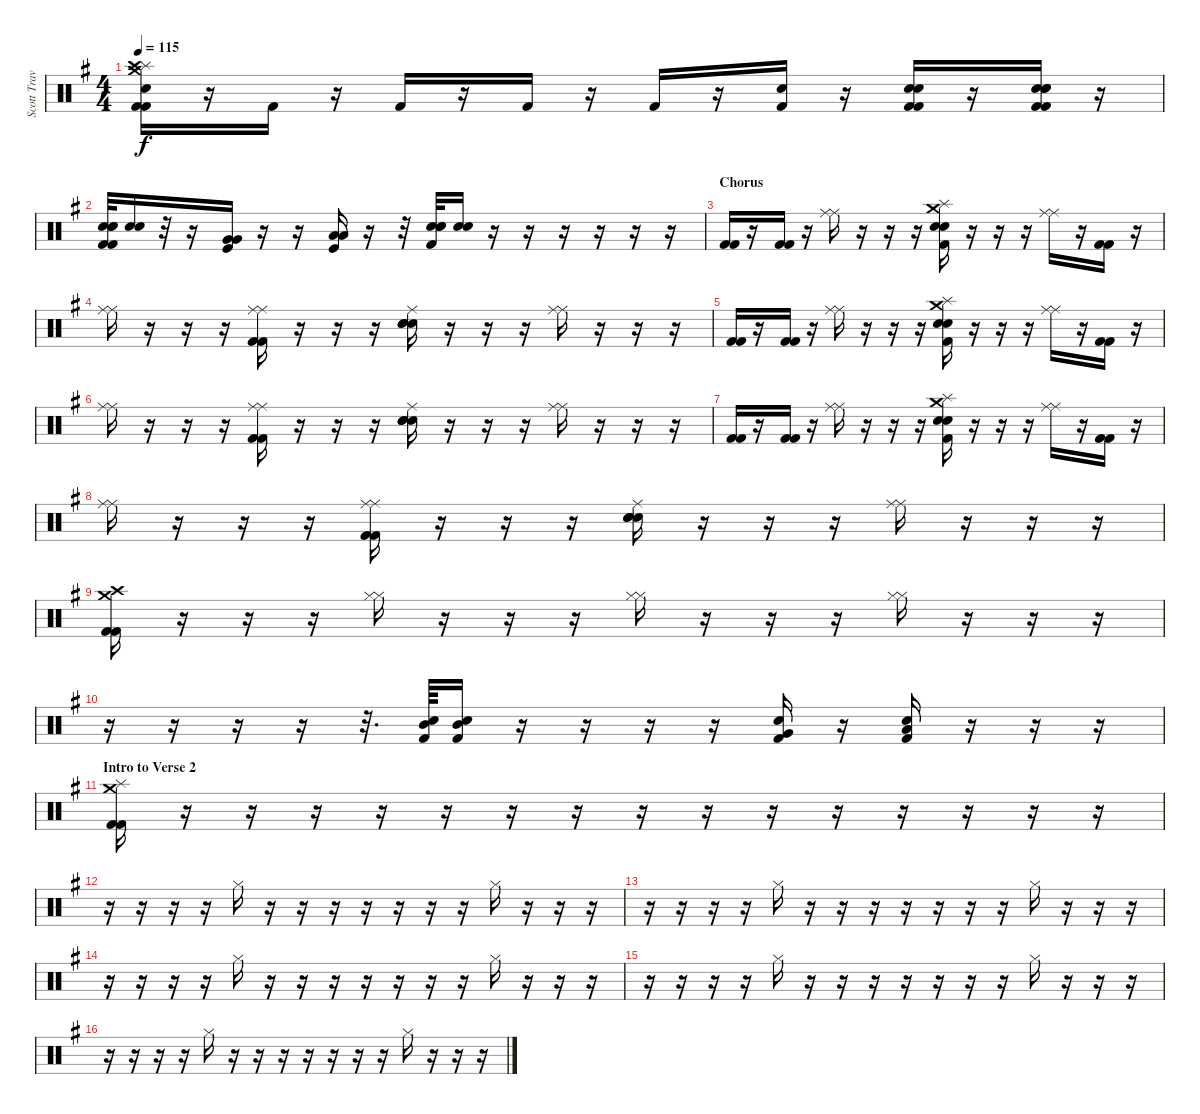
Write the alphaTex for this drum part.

\track ("Scott Travis" "Scott Trav") {instrument percussion}
\staff {score}
\articulation defaults
\ts (4 4)
\tempo 115
\clef neutral
\ks eminor
("Splash (hit)" "Crash high (hit)" "Crash medium (hit)" "Snare (hit) 2" "Kick (hit) 2" "Kick (hit) 2").16{dy f} r.16 "Kick (hit) 2".16 r.16 "Kick (hit) 2".16 r.16 "Kick (hit) 2".16 r.16 "Kick (hit) 2".16 r.16 ("Snare (hit) 2" "Kick (hit) 2").16 r.16 ("Snare (hit) 2" "Snare (hit) 2" "Kick (hit) 2" "Kick (hit) 2").16 r.16 ("Snare (hit) 2" "Snare (hit) 2" "Snare (hit) 2" "Kick (hit) 2" "Kick (hit) 2").16 r.16 |
("Snare (hit) 2" "Snare (hit) 2" "Snare (hit) 2" "Kick (hit) 2" "Kick (hit) 2").32 ("Snare (hit) 2" "Snare (hit) 2").16 r.32 r.16 ("Very Low Tom (hit)" "Very Low Tom (hit)" "Kick (hit)").16 r.16 r.16 ("Low Floor Tom (hit)" "Low Floor Tom (hit)" "Kick (hit)").16 r.16 r.32 ("Snare (hit) 2" "Snare (hit) 2" "Snare (hit) 2" "Kick (hit) 2").32 ("Snare (hit) 2" "Snare (hit) 2").16 r.16 r.16 r.16 r.16 r.16 r.16 |
\section ("" "Chorus")
("Kick (hit) 2" "Kick (hit) 2").16 r.16 ("Kick (hit) 2" "Kick (hit) 2").16 r.16 ("Ride (middle)" "Ride (middle)").16 r.16 r.16 r.16 ("Crash medium (hit)" "Splash (hit)" "Snare (hit) 2" "Snare (hit) 2" "Kick (hit) 2").16 r.16 r.16 r.16 ("Ride (middle)" "Ride (middle)").16 r.16 ("Kick (hit) 2" "Kick (hit) 2").16 r.16 |
("Ride (middle)" "Ride (middle)").16 r.16 r.16 r.16 ("Ride (middle)" "Ride (middle)" "Kick (hit) 2" "Kick (hit) 2").16 r.16 r.16 r.16 ("Ride (middle)" "Snare (hit) 2" "Snare (hit) 2" "Snare (hit) 2").16 r.16 r.16 r.16 ("Ride (middle)" "Ride (middle)").16 r.16 r.16 r.16 |
("Kick (hit) 2" "Kick (hit) 2").16 r.16 ("Kick (hit) 2" "Kick (hit) 2").16 r.16 ("Ride (middle)" "Ride (middle)").16 r.16 r.16 r.16 ("Crash medium (hit)" "Splash (hit)" "Snare (hit) 2" "Snare (hit) 2" "Kick (hit) 2").16 r.16 r.16 r.16 ("Ride (middle)" "Ride (middle)").16 r.16 ("Kick (hit) 2" "Kick (hit) 2").16 r.16 |
("Ride (middle)" "Ride (middle)").16 r.16 r.16 r.16 ("Ride (middle)" "Ride (middle)" "Kick (hit) 2" "Kick (hit) 2").16 r.16 r.16 r.16 ("Ride (middle)" "Snare (hit) 2" "Snare (hit) 2" "Snare (hit) 2").16 r.16 r.16 r.16 ("Ride (middle)" "Ride (middle)").16 r.16 r.16 r.16 |
("Kick (hit) 2" "Kick (hit) 2").16 r.16 ("Kick (hit) 2" "Kick (hit) 2").16 r.16 ("Ride (middle)" "Ride (middle)").16 r.16 r.16 r.16 ("Crash medium (hit)" "Splash (hit)" "Snare (hit) 2" "Snare (hit) 2" "Kick (hit) 2").16 r.16 r.16 r.16 ("Ride (middle)" "Ride (middle)").16 r.16 ("Kick (hit) 2" "Kick (hit) 2").16 r.16 |
("Ride (middle)" "Ride (middle)").16 r.16 r.16 r.16 ("Ride (middle)" "Ride (middle)" "Kick (hit) 2" "Kick (hit) 2").16 r.16 r.16 r.16 ("Ride (middle)" "Snare (hit) 2" "Snare (hit) 2" "Snare (hit) 2").16 r.16 r.16 r.16 ("Ride (middle)" "Ride (middle)").16 r.16 r.16 r.16 |
("Crash medium (hit)" "Crash high (hit)" "Kick (hit) 2" "Kick (hit) 2").16 r.16 r.16 r.16 ("Hi-Hat (closed)" "Hi-Hat (closed)").16 r.16 r.16 r.16 ("Hi-Hat (closed)" "Hi-Hat (closed)").16 r.16 r.16 r.16 ("Hi-Hat (closed)" "Hi-Hat (closed)").16 r.16 r.16 r.16 |
r.16 r.16 r.16 r.16 r.32{d} ("Mid Tom (hit)" "Electric Snare (hit)" "Kick (hit) 2").64 ("Mid Tom (hit)" "Electric Snare (hit)" "Kick (hit) 2").16 r.16 r.16 r.16 r.16 ("Very Low Tom (hit)" "Electric Snare (hit)" "Kick (hit) 2").16 r.16 ("Low Floor Tom (hit)" "Electric Snare (hit)" "Kick (hit) 2").16 r.16 r.16 r.16 |
\section ("" "Intro to Verse 2")
("Crash medium (hit)" "Splash (hit)" "Kick (hit) 2" "Kick (hit) 2").16 r.16 r.16 r.16 r.16 r.16 r.16 r.16 r.16 r.16 r.16 r.16 r.16 r.16 r.16 r.16 |
r.16 r.16 r.16 r.16 "Hi-Hat (closed)".16 r.16 r.16 r.16 r.16 r.16 r.16 r.16 "Hi-Hat (closed)".16 r.16 r.16 r.16 |
r.16 r.16 r.16 r.16 "Hi-Hat (closed)".16 r.16 r.16 r.16 r.16 r.16 r.16 r.16 "Hi-Hat (closed)".16 r.16 r.16 r.16 |
r.16 r.16 r.16 r.16 "Hi-Hat (closed)".16 r.16 r.16 r.16 r.16 r.16 r.16 r.16 "Hi-Hat (closed)".16 r.16 r.16 r.16 |
r.16 r.16 r.16 r.16 "Hi-Hat (closed)".16 r.16 r.16 r.16 r.16 r.16 r.16 r.16 "Hi-Hat (closed)".16 r.16 r.16 r.16 |
r.16 r.16 r.16 r.16 "Hi-Hat (closed)".16 r.16 r.16 r.16 r.16 r.16 r.16 r.16 "Hi-Hat (closed)".16 r.16 r.16 r.16
